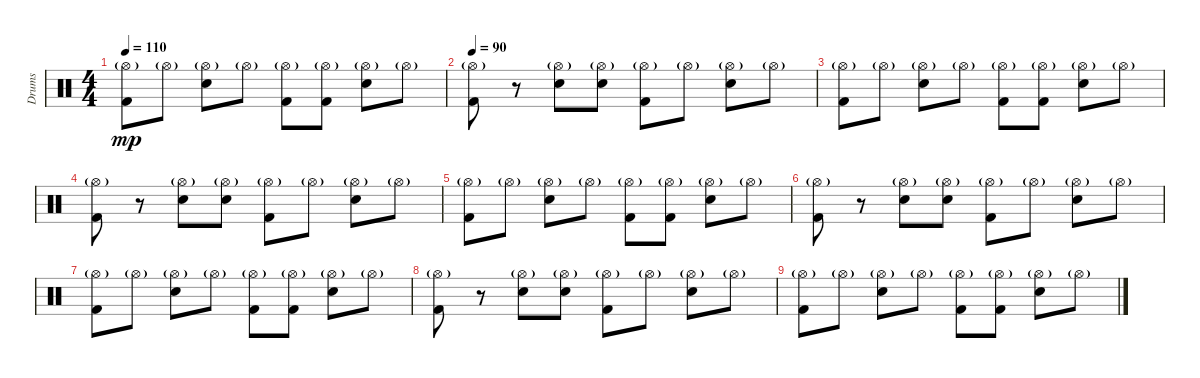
\track ("Drums" "Drums") {instrument percussion}
\staff {score}
\articulation defaults
\ts (4 4)
\tempo 110
\clef neutral
\ks c
("Hi-Hat (open)"{g} "Kick (hit) 2").8{dy mp} "Hi-Hat (open)"{g}.8 ("Hi-Hat (open)"{g} "Snare (hit) 2").8 "Hi-Hat (open)"{g}.8 ("Hi-Hat (open)"{g} "Kick (hit) 2").8 ("Hi-Hat (open)"{g} "Kick (hit) 2").8 ("Hi-Hat (open)"{g} "Snare (hit) 2").8 "Hi-Hat (open)"{g}.8 |
\tempo 90
("Hi-Hat (open)"{g} "Kick (hit) 2").8 r.8 ("Hi-Hat (open)"{g} "Snare (hit) 2").8 ("Hi-Hat (open)"{g} "Snare (hit) 2").8 ("Hi-Hat (open)"{g} "Kick (hit) 2").8 "Hi-Hat (open)"{g}.8 ("Hi-Hat (open)"{g} "Snare (hit) 2").8 "Hi-Hat (open)"{g}.8 |
("Hi-Hat (open)"{g} "Kick (hit) 2").8 "Hi-Hat (open)"{g}.8 ("Hi-Hat (open)"{g} "Snare (hit) 2").8 "Hi-Hat (open)"{g}.8 ("Hi-Hat (open)"{g} "Kick (hit) 2").8 ("Hi-Hat (open)"{g} "Kick (hit) 2").8 ("Hi-Hat (open)"{g} "Snare (hit) 2").8 "Hi-Hat (open)"{g}.8 |
("Hi-Hat (open)"{g} "Kick (hit) 2").8 r.8 ("Hi-Hat (open)"{g} "Snare (hit) 2").8 ("Hi-Hat (open)"{g} "Snare (hit) 2").8 ("Hi-Hat (open)"{g} "Kick (hit) 2").8 "Hi-Hat (open)"{g}.8 ("Hi-Hat (open)"{g} "Snare (hit) 2").8 "Hi-Hat (open)"{g}.8 |
("Hi-Hat (open)"{g} "Kick (hit) 2").8 "Hi-Hat (open)"{g}.8 ("Hi-Hat (open)"{g} "Snare (hit) 2").8 "Hi-Hat (open)"{g}.8 ("Hi-Hat (open)"{g} "Kick (hit) 2").8 ("Hi-Hat (open)"{g} "Kick (hit) 2").8 ("Hi-Hat (open)"{g} "Snare (hit) 2").8 "Hi-Hat (open)"{g}.8 |
("Hi-Hat (open)"{g} "Kick (hit) 2").8 r.8 ("Hi-Hat (open)"{g} "Snare (hit) 2").8 ("Hi-Hat (open)"{g} "Snare (hit) 2").8 ("Hi-Hat (open)"{g} "Kick (hit) 2").8 "Hi-Hat (open)"{g}.8 ("Hi-Hat (open)"{g} "Snare (hit) 2").8 "Hi-Hat (open)"{g}.8 |
("Hi-Hat (open)"{g} "Kick (hit) 2").8 "Hi-Hat (open)"{g}.8 ("Hi-Hat (open)"{g} "Snare (hit) 2").8 "Hi-Hat (open)"{g}.8 ("Hi-Hat (open)"{g} "Kick (hit) 2").8 ("Hi-Hat (open)"{g} "Kick (hit) 2").8 ("Hi-Hat (open)"{g} "Snare (hit) 2").8 "Hi-Hat (open)"{g}.8 |
("Hi-Hat (open)"{g} "Kick (hit) 2").8 r.8 ("Hi-Hat (open)"{g} "Snare (hit) 2").8 ("Hi-Hat (open)"{g} "Snare (hit) 2").8 ("Hi-Hat (open)"{g} "Kick (hit) 2").8 "Hi-Hat (open)"{g}.8 ("Hi-Hat (open)"{g} "Snare (hit) 2").8 "Hi-Hat (open)"{g}.8 |
("Hi-Hat (open)"{g} "Kick (hit) 2").8 "Hi-Hat (open)"{g}.8 ("Hi-Hat (open)"{g} "Snare (hit) 2").8 "Hi-Hat (open)"{g}.8 ("Hi-Hat (open)"{g} "Kick (hit) 2").8 ("Hi-Hat (open)"{g} "Kick (hit) 2").8 ("Hi-Hat (open)"{g} "Snare (hit) 2").8 "Hi-Hat (open)"{g}.8
